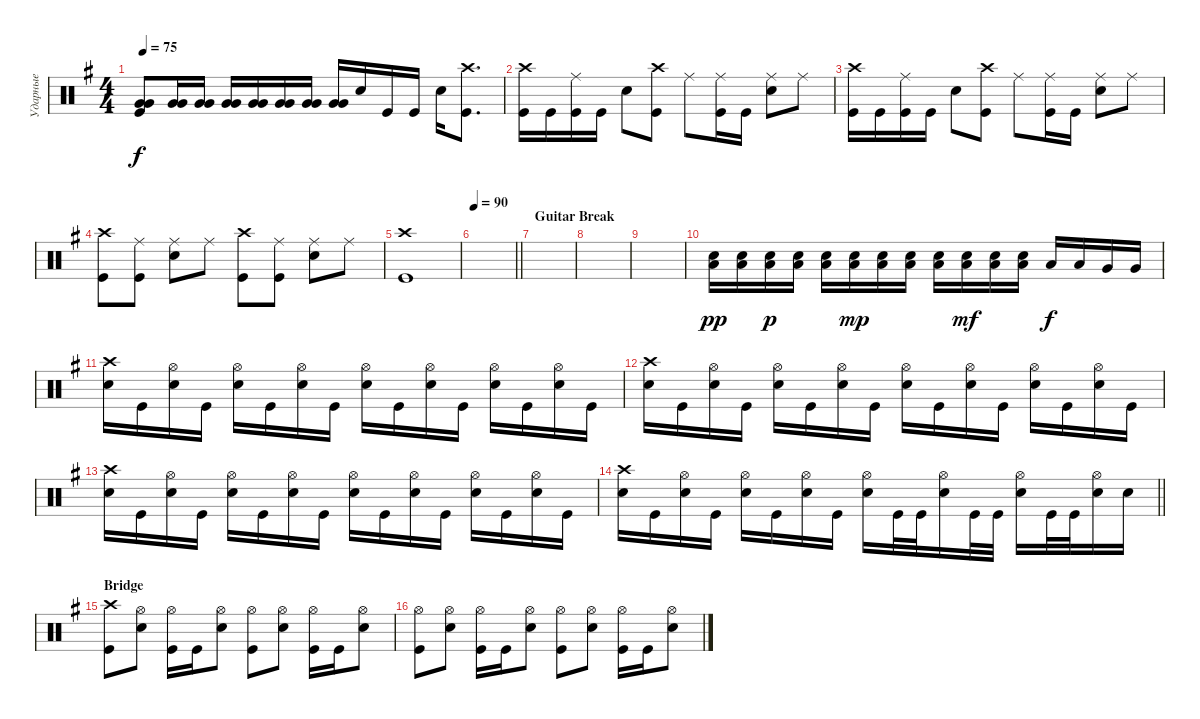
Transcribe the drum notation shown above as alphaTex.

\track ("Ударные" "Ударные") {instrument percussion}
\staff {score}
\articulation defaults
\ts (4 4)
\tempo 75
\clef neutral
\ks eminor
("Kick (hit)" "Very Low Tom (hit)" "Very Low Tom (hit)").8{bd 60 dy f} ("Very Low Tom (hit)" "Very Low Tom (hit)").16{bd 60} ("Very Low Tom (hit)" "Very Low Tom (hit)").16{bd 60} ("Very Low Tom (hit)" "Very Low Tom (hit)").16{bd 60} ("Very Low Tom (hit)" "Very Low Tom (hit)").16{bd 60} ("Very Low Tom (hit)" "Very Low Tom (hit)").16{bd 60} ("Very Low Tom (hit)" "Very Low Tom (hit)").16{bd 60} ("Very Low Tom (hit)" "Very Low Tom (hit)").16{bd 60} "Snare (hit) 2".16 "Kick (hit)".16 "Kick (hit)".16 "Snare (hit) 2".16 ("Kick (hit)" "Crash high (hit)").8{d} |
("Kick (hit)" "Crash high (hit)").16 "Kick (hit)".16 ("Kick (hit)" "Ride (middle)").16 "Kick (hit)".16 "Snare (hit) 2".8 ("Kick (hit)" "Crash high (hit)").8 "Ride (middle)".8 ("Kick (hit)" "Ride (middle)").16 "Kick (hit)".16 ("Snare (hit) 2" "Ride (middle)").8 "Ride (middle)".8 |
("Kick (hit)" "Crash high (hit)").16 "Kick (hit)".16 ("Kick (hit)" "Ride (middle)").16 "Kick (hit)".16 "Snare (hit) 2".8 ("Kick (hit)" "Crash high (hit)").8 "Ride (middle)".8 ("Kick (hit)" "Ride (middle)").16 "Kick (hit)".16 ("Snare (hit) 2" "Ride (middle)").8 "Ride (middle)".8 |
("Kick (hit)" "Crash high (hit)").8 ("Kick (hit)" "Ride (middle)").8 ("Snare (hit) 2" "Ride (middle)").8 "Ride (middle)".8 ("Kick (hit)" "Crash high (hit)").8 ("Kick (hit)" "Ride (middle)").8 ("Snare (hit) 2" "Ride (middle)").8 "Ride (middle)".8 |
("Kick (hit)" "Crash high (hit)").1 |
\tempo 90
\barLineRight lightlight
|
\section ("" "Guitar Break")
|
|
|
("Snare (hit) 2" "Low Tom (hit)").16{bd 120 dy pp} ("Snare (hit) 2" "Low Tom (hit)").16{bd 120} ("Snare (hit) 2" "Low Tom (hit)").16{bd 120 dy p} ("Snare (hit) 2" "Low Tom (hit)").16{bd 120} ("Snare (hit) 2" "Low Tom (hit)").16{bd 120} ("Snare (hit) 2" "Low Tom (hit)").16{bd 120 dy mp} ("Snare (hit) 2" "Low Tom (hit)").16{bd 120} ("Snare (hit) 2" "Low Tom (hit)").16{bd 120} ("Snare (hit) 2" "Low Tom (hit)").16{bd 120} ("Snare (hit) 2" "Low Tom (hit)").16{bd 120 dy mf} ("Snare (hit) 2" "Low Tom (hit)").16{bd 120} ("Snare (hit) 2" "Low Tom (hit)").16{bd 120} "Low Tom (hit)".16{dy f} "Low Tom (hit)".16 "Very Low Tom (hit)".16 "Very Low Tom (hit)".16 |
("Snare (hit) 2" "Crash high (hit)").16 "Kick (hit)".16 ("Snare (hit) 2" "Hi-Hat (open)").16 "Kick (hit)".16 ("Snare (hit) 2" "Hi-Hat (open)").16 "Kick (hit)".16 ("Snare (hit) 2" "Hi-Hat (open)").16 "Kick (hit)".16 ("Snare (hit) 2" "Hi-Hat (open)").16 "Kick (hit)".16 ("Snare (hit) 2" "Hi-Hat (open)").16 "Kick (hit)".16 ("Snare (hit) 2" "Hi-Hat (open)").16 "Kick (hit)".16 ("Snare (hit) 2" "Hi-Hat (open)").16 "Kick (hit)".16 |
("Snare (hit) 2" "Crash high (hit)").16 "Kick (hit)".16 ("Snare (hit) 2" "Hi-Hat (open)").16 "Kick (hit)".16 ("Snare (hit) 2" "Hi-Hat (open)").16 "Kick (hit)".16 ("Snare (hit) 2" "Hi-Hat (open)").16 "Kick (hit)".16 ("Snare (hit) 2" "Hi-Hat (open)").16 "Kick (hit)".16 ("Snare (hit) 2" "Hi-Hat (open)").16 "Kick (hit)".16 ("Snare (hit) 2" "Hi-Hat (open)").16 "Kick (hit)".16 ("Snare (hit) 2" "Hi-Hat (open)").16 "Kick (hit)".16 |
("Snare (hit) 2" "Crash high (hit)").16 "Kick (hit)".16 ("Snare (hit) 2" "Hi-Hat (open)").16 "Kick (hit)".16 ("Snare (hit) 2" "Hi-Hat (open)").16 "Kick (hit)".16 ("Snare (hit) 2" "Hi-Hat (open)").16 "Kick (hit)".16 ("Snare (hit) 2" "Hi-Hat (open)").16 "Kick (hit)".16 ("Snare (hit) 2" "Hi-Hat (open)").16 "Kick (hit)".16 ("Snare (hit) 2" "Hi-Hat (open)").16 "Kick (hit)".16 ("Snare (hit) 2" "Hi-Hat (open)").16 "Kick (hit)".16 |
\barLineRight lightlight
("Snare (hit) 2" "Crash high (hit)").16 "Kick (hit)".16 ("Snare (hit) 2" "Hi-Hat (open)").16 "Kick (hit)".16 ("Snare (hit) 2" "Hi-Hat (open)").16 "Kick (hit)".16 ("Snare (hit) 2" "Hi-Hat (open)").16 "Kick (hit)".16 ("Snare (hit) 2" "Hi-Hat (open)").16 "Kick (hit)".32 "Kick (hit)".32 ("Snare (hit) 2" "Hi-Hat (open)").16 "Kick (hit)".32 "Kick (hit)".32 ("Snare (hit) 2" "Hi-Hat (open)").16 "Kick (hit)".32 "Kick (hit)".32 ("Snare (hit) 2" "Hi-Hat (open)").16 "Snare (hit) 2".16 |
\section ("" "Bridge")
("Kick (hit)" "Crash high (hit)").8 ("Snare (hit) 2" "Hi-Hat (open)").8 ("Kick (hit)" "Hi-Hat (open)").16 "Kick (hit)".16 ("Snare (hit) 2" "Hi-Hat (open)").8 ("Kick (hit)" "Hi-Hat (open)").8 ("Snare (hit) 2" "Hi-Hat (open)").8 ("Kick (hit)" "Hi-Hat (open)").16 "Kick (hit)".16 ("Snare (hit) 2" "Hi-Hat (open)").8 |
("Kick (hit)" "Hi-Hat (open)").8 ("Snare (hit) 2" "Hi-Hat (open)").8 ("Kick (hit)" "Hi-Hat (open)").16 "Kick (hit)".16 ("Snare (hit) 2" "Hi-Hat (open)").8 ("Kick (hit)" "Hi-Hat (open)").8 ("Snare (hit) 2" "Hi-Hat (open)").8 ("Kick (hit)" "Hi-Hat (open)").16 "Kick (hit)".16 ("Snare (hit) 2" "Hi-Hat (open)").8
